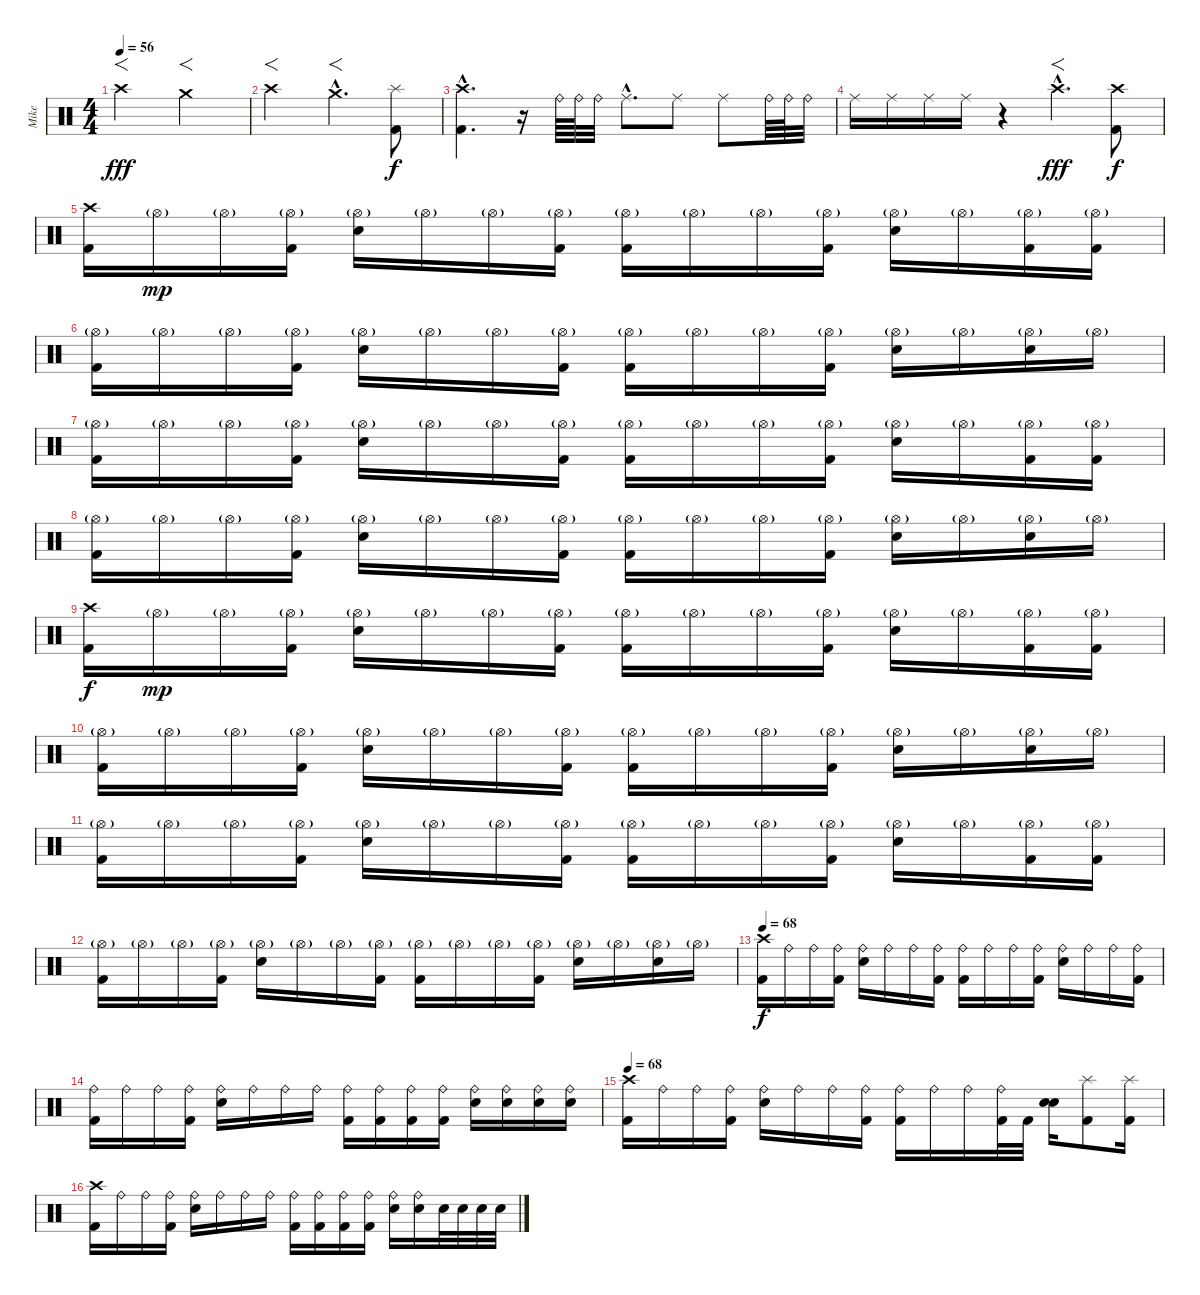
\track ("Mike" "Mike") {instrument percussion}
\staff {score}
\articulation defaults
\ts (4 4)
\tempo 56
\clef neutral
\ks c "Crash high (hit)".2{f dy fff} "Crash medium (hit)".2{f}
|
"Crash high (hit)".2{f} "Crash medium (hit)"{hac}.4{f d} ("Splash (hit)" "Kick (hit) 2").8{dy f} |
("Crash high (hit)"{hac} "Kick (hit) 2"{hac}).4{d} r.16 "Ride (bell)".64 "Ride (bell)".64 "Ride (bell)".32 "Ride (middle)"{hac}.8{d} "Ride (middle)".8 "Ride (middle)".8 "Ride (bell)".64 "Ride (bell)".64 "Ride (bell)".32 |
"Ride (middle)".16 "Ride (middle)".16 "Ride (middle)".16 "Ride (middle)".16 r.4 "Crash high (hit)"{hac}.4{f d dy fff} ("Crash high (hit)" "Kick (hit) 2").8{dy f} |
("Crash high (hit)" "Kick (hit) 2").16 "Hi-Hat (open)"{g}.16{dy mp} "Hi-Hat (open)"{g}.16 ("Hi-Hat (open)"{g} "Kick (hit) 2").16 ("Hi-Hat (open)"{g} "Snare (hit) 2").16 "Hi-Hat (open)"{g}.16 "Hi-Hat (open)"{g}.16 ("Hi-Hat (open)"{g} "Kick (hit) 2").16 ("Hi-Hat (open)"{g} "Kick (hit) 2").16 "Hi-Hat (open)"{g}.16 "Hi-Hat (open)"{g}.16 ("Hi-Hat (open)"{g} "Kick (hit) 2").16 ("Hi-Hat (open)"{g} "Snare (hit) 2").16 "Hi-Hat (open)"{g}.16 ("Hi-Hat (open)"{g} "Kick (hit) 2").16 ("Hi-Hat (open)"{g} "Kick (hit) 2").16 |
("Hi-Hat (open)"{g} "Kick (hit) 2").16 "Hi-Hat (open)"{g}.16 "Hi-Hat (open)"{g}.16 ("Hi-Hat (open)"{g} "Kick (hit) 2").16 ("Hi-Hat (open)"{g} "Snare (hit) 2").16 "Hi-Hat (open)"{g}.16 "Hi-Hat (open)"{g}.16 ("Hi-Hat (open)"{g} "Kick (hit) 2").16 ("Hi-Hat (open)"{g} "Kick (hit) 2").16 "Hi-Hat (open)"{g}.16 "Hi-Hat (open)"{g}.16 ("Hi-Hat (open)"{g} "Kick (hit) 2").16 ("Hi-Hat (open)"{g} "Snare (hit) 2").16 "Hi-Hat (open)"{g}.16 ("Hi-Hat (open)"{g} "Snare (hit) 2").16 "Hi-Hat (open)"{g}.16 |
("Hi-Hat (open)"{g} "Kick (hit) 2").16 "Hi-Hat (open)"{g}.16 "Hi-Hat (open)"{g}.16 ("Hi-Hat (open)"{g} "Kick (hit) 2").16 ("Hi-Hat (open)"{g} "Snare (hit) 2").16 "Hi-Hat (open)"{g}.16 "Hi-Hat (open)"{g}.16 ("Hi-Hat (open)"{g} "Kick (hit) 2").16 ("Hi-Hat (open)"{g} "Kick (hit) 2").16 "Hi-Hat (open)"{g}.16 "Hi-Hat (open)"{g}.16 ("Hi-Hat (open)"{g} "Kick (hit) 2").16 ("Hi-Hat (open)"{g} "Snare (hit) 2").16 "Hi-Hat (open)"{g}.16 ("Hi-Hat (open)"{g} "Kick (hit) 2").16 ("Hi-Hat (open)"{g} "Kick (hit) 2").16 |
("Hi-Hat (open)"{g} "Kick (hit) 2").16 "Hi-Hat (open)"{g}.16 "Hi-Hat (open)"{g}.16 ("Hi-Hat (open)"{g} "Kick (hit) 2").16 ("Hi-Hat (open)"{g} "Snare (hit) 2").16 "Hi-Hat (open)"{g}.16 "Hi-Hat (open)"{g}.16 ("Hi-Hat (open)"{g} "Kick (hit) 2").16 ("Hi-Hat (open)"{g} "Kick (hit) 2").16 "Hi-Hat (open)"{g}.16 "Hi-Hat (open)"{g}.16 ("Hi-Hat (open)"{g} "Kick (hit) 2").16 ("Hi-Hat (open)"{g} "Snare (hit) 2").16 "Hi-Hat (open)"{g}.16 ("Hi-Hat (open)"{g} "Snare (hit) 2").16 "Hi-Hat (open)"{g}.16 |
("Crash high (hit)" "Kick (hit) 2").16{dy f} "Hi-Hat (open)"{g}.16{dy mp} "Hi-Hat (open)"{g}.16 ("Hi-Hat (open)"{g} "Kick (hit) 2").16 ("Hi-Hat (open)"{g} "Snare (hit) 2").16 "Hi-Hat (open)"{g}.16 "Hi-Hat (open)"{g}.16 ("Hi-Hat (open)"{g} "Kick (hit) 2").16 ("Hi-Hat (open)"{g} "Kick (hit) 2").16 "Hi-Hat (open)"{g}.16 "Hi-Hat (open)"{g}.16 ("Hi-Hat (open)"{g} "Kick (hit) 2").16 ("Hi-Hat (open)"{g} "Snare (hit) 2").16 "Hi-Hat (open)"{g}.16 ("Hi-Hat (open)"{g} "Kick (hit) 2").16 ("Hi-Hat (open)"{g} "Kick (hit) 2").16 |
("Hi-Hat (open)"{g} "Kick (hit) 2").16 "Hi-Hat (open)"{g}.16 "Hi-Hat (open)"{g}.16 ("Hi-Hat (open)"{g} "Kick (hit) 2").16 ("Hi-Hat (open)"{g} "Snare (hit) 2").16 "Hi-Hat (open)"{g}.16 "Hi-Hat (open)"{g}.16 ("Hi-Hat (open)"{g} "Kick (hit) 2").16 ("Hi-Hat (open)"{g} "Kick (hit) 2").16 "Hi-Hat (open)"{g}.16 "Hi-Hat (open)"{g}.16 ("Hi-Hat (open)"{g} "Kick (hit) 2").16 ("Hi-Hat (open)"{g} "Snare (hit) 2").16 "Hi-Hat (open)"{g}.16 ("Hi-Hat (open)"{g} "Snare (hit) 2").16 "Hi-Hat (open)"{g}.16 |
("Hi-Hat (open)"{g} "Kick (hit) 2").16 "Hi-Hat (open)"{g}.16 "Hi-Hat (open)"{g}.16 ("Hi-Hat (open)"{g} "Kick (hit) 2").16 ("Hi-Hat (open)"{g} "Snare (hit) 2").16 "Hi-Hat (open)"{g}.16 "Hi-Hat (open)"{g}.16 ("Hi-Hat (open)"{g} "Kick (hit) 2").16 ("Hi-Hat (open)"{g} "Kick (hit) 2").16 "Hi-Hat (open)"{g}.16 "Hi-Hat (open)"{g}.16 ("Hi-Hat (open)"{g} "Kick (hit) 2").16 ("Hi-Hat (open)"{g} "Snare (hit) 2").16 "Hi-Hat (open)"{g}.16 ("Hi-Hat (open)"{g} "Kick (hit) 2").16 ("Hi-Hat (open)"{g} "Kick (hit) 2").16 |
("Hi-Hat (open)"{g} "Kick (hit) 2").16 "Hi-Hat (open)"{g}.16 "Hi-Hat (open)"{g}.16 ("Hi-Hat (open)"{g} "Kick (hit) 2").16 ("Hi-Hat (open)"{g} "Snare (hit) 2").16 "Hi-Hat (open)"{g}.16 "Hi-Hat (open)"{g}.16 ("Hi-Hat (open)"{g} "Kick (hit) 2").16 ("Hi-Hat (open)"{g} "Kick (hit) 2").16 "Hi-Hat (open)"{g}.16 "Hi-Hat (open)"{g}.16 ("Hi-Hat (open)"{g} "Kick (hit) 2").16 ("Hi-Hat (open)"{g} "Snare (hit) 2").16 "Hi-Hat (open)"{g}.16 ("Hi-Hat (open)"{g} "Snare (hit) 2").16 "Hi-Hat (open)"{g}.16 |
\tempo 68
("Crash high (hit)" "Kick (hit) 2").16{dy f} "Ride (bell)".16 "Ride (bell)".16 ("Ride (bell)" "Kick (hit) 2").16 ("Ride (bell)" "Snare (hit) 2").16 "Ride (bell)".16 "Ride (bell)".16 ("Ride (bell)" "Kick (hit) 2").16 ("Ride (bell)" "Kick (hit) 2").16 "Ride (bell)".16 "Ride (bell)".16 ("Ride (bell)" "Kick (hit) 2").16 ("Ride (bell)" "Snare (hit) 2").16 "Ride (bell)".16 "Ride (bell)".16 ("Ride (bell)" "Kick (hit) 2").16 |
("Ride (bell)" "Kick (hit) 2").16 "Ride (bell)".16 "Ride (bell)".16 ("Ride (bell)" "Kick (hit) 2").16 ("Ride (bell)" "Snare (hit) 2").16 "Ride (bell)".16 "Ride (bell)".16 "Ride (bell)".16 ("Ride (bell)" "Kick (hit) 2").16 ("Ride (bell)" "Kick (hit) 2").16 ("Ride (bell)" "Kick (hit) 2").16 ("Ride (bell)" "Kick (hit) 2").16 ("Ride (bell)" "Snare (hit) 2").16 ("Ride (bell)" "Snare (hit) 2").16 ("Ride (bell)" "Snare (hit) 2").16 ("Ride (bell)" "Snare (hit) 2").16 |
\tempo 68
("Crash high (hit)" "Kick (hit) 2").16 "Ride (bell)".16 "Ride (bell)".16 ("Ride (bell)" "Kick (hit) 2").16 ("Ride (bell)" "Snare (hit) 2").16 "Ride (bell)".16 "Ride (bell)".16 ("Ride (bell)" "Kick (hit) 2").16 ("Ride (bell)" "Kick (hit) 2").16 "Ride (bell)".16 "Ride (bell)".16 ("Ride (bell)" "Kick (hit) 2").32 "Kick (hit) 2".32 ("Snare (hit) 2" "Snare (hit) 2").16 ("Splash (hit)" "Kick (hit) 2").8 ("Splash (hit)" "Kick (hit) 2").16 |
("Crash high (hit)" "Kick (hit) 2").16 "Ride (bell)".16 "Ride (bell)".16 ("Ride (bell)" "Kick (hit) 2").16 ("Ride (bell)" "Snare (hit) 2").16 "Ride (bell)".16 "Ride (bell)".16 "Ride (bell)".16 ("Ride (bell)" "Kick (hit) 2").16 ("Ride (bell)" "Kick (hit) 2").16 ("Ride (bell)" "Kick (hit) 2").16 ("Ride (bell)" "Kick (hit) 2").16 ("Ride (bell)" "Snare (hit) 2").16 ("Ride (bell)" "Snare (hit) 2").16 "Snare (hit) 2".32 "Snare (hit) 2".32 "Snare (hit) 2".32 "Snare (hit) 2".32
